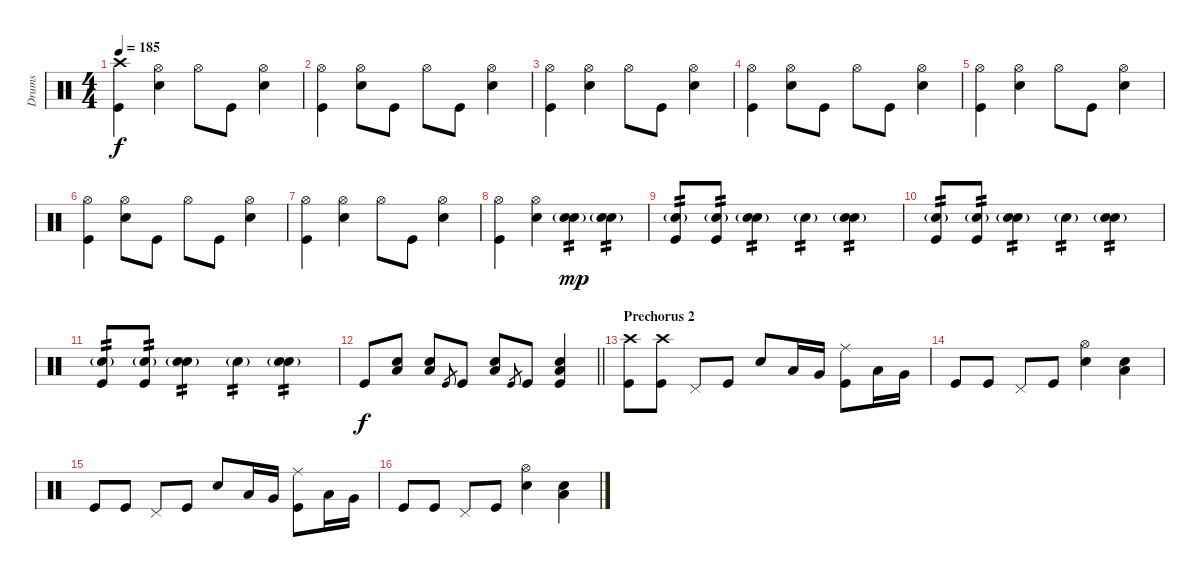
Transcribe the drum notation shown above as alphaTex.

\track ("Drums" "Drums") {instrument percussion}
\staff {score}
\articulation defaults
\ts (4 4)
\tempo 185
\clef neutral
\ks c
("Crash high (hit)" "Kick (hit)").4{dy f} ("Hi-Hat (open)" "Snare (hit) 2").4 "Hi-Hat (open)".8 "Kick (hit)".8 ("Hi-Hat (open)" "Snare (hit) 2").4 |
("Hi-Hat (open)" "Kick (hit)").4 ("Hi-Hat (open)" "Snare (hit) 2").8 "Kick (hit)".8 "Hi-Hat (open)".8 "Kick (hit)".8 ("Hi-Hat (open)" "Snare (hit) 2").4 |
("Hi-Hat (open)" "Kick (hit)").4 ("Hi-Hat (open)" "Snare (hit) 2").4 "Hi-Hat (open)".8 "Kick (hit)".8 ("Hi-Hat (open)" "Snare (hit) 2").4 |
("Hi-Hat (open)" "Kick (hit)").4 ("Hi-Hat (open)" "Snare (hit) 2").8 "Kick (hit)".8 "Hi-Hat (open)".8 "Kick (hit)".8 ("Hi-Hat (open)" "Snare (hit) 2").4 |
("Hi-Hat (open)" "Kick (hit)").4 ("Hi-Hat (open)" "Snare (hit) 2").4 "Hi-Hat (open)".8 "Kick (hit)".8 ("Hi-Hat (open)" "Snare (hit) 2").4 |
("Hi-Hat (open)" "Kick (hit)").4 ("Hi-Hat (open)" "Snare (hit) 2").8 "Kick (hit)".8 "Hi-Hat (open)".8 "Kick (hit)".8 ("Hi-Hat (open)" "Snare (hit) 2").4 |
("Hi-Hat (open)" "Kick (hit)").4 ("Hi-Hat (open)" "Snare (hit) 2").4 "Hi-Hat (open)".8 "Kick (hit)".8 ("Hi-Hat (open)" "Snare (hit) 2").4 |
("Hi-Hat (open)" "Kick (hit)").4 ("Hi-Hat (open)" "Snare (hit) 2").4 ("Snare (hit) 2" "Snare (hit) 2"{g}).4{tp 2 dy mp} ("Snare (hit) 2" "Snare (hit) 2"{g}).4{tp 2} |
("Snare (hit) 2"{g} "Kick (hit)").8{tp 2} ("Snare (hit) 2"{g} "Kick (hit)").8{tp 2} ("Snare (hit) 2"{g} "Snare (hit) 2").4{tp 2} "Snare (hit) 2"{g}.4{tp 2} ("Snare (hit) 2"{g} "Snare (hit) 2").4{tp 2} |
("Snare (hit) 2"{g} "Kick (hit)").8{tp 2} ("Snare (hit) 2"{g} "Kick (hit)").8{tp 2} ("Snare (hit) 2"{g} "Snare (hit) 2").4{tp 2} "Snare (hit) 2"{g}.4{tp 2} ("Snare (hit) 2"{g} "Snare (hit) 2").4{tp 2} |
("Snare (hit) 2"{g} "Kick (hit)").8{tp 2} ("Snare (hit) 2"{g} "Kick (hit)").8{tp 2} ("Snare (hit) 2"{g} "Snare (hit) 2").4{tp 2} "Snare (hit) 2"{g}.4{tp 2} ("Snare (hit) 2"{g} "Snare (hit) 2").4{tp 2} |
\barLineRight lightlight "Kick (hit)".8{dy f}
("Snare (hit) 2" "Low Floor Tom (hit)").8 ("Snare (hit) 2" "Low Floor Tom (hit)").8 "Kick (hit)".8{gr} "Kick (hit)".8 ("Snare (hit) 2" "Low Floor Tom (hit)").8 "Kick (hit)".8{gr} "Kick (hit)".8 ("Snare (hit) 2" "Kick (hit)" "Low Floor Tom (hit)").4 |
\section ("" "Prechorus 2")
("Crash high (hit)" "Kick (hit)").8 ("Crash high (hit)" "Kick (hit)").8 "Pedal Hi-Hat (hit)".8 "Kick (hit)".8 "Snare (hit) 2".8 "Low Tom (hit)".16 "Very Low Tom (hit)".16 ("Ride (middle)" "Kick (hit)").8 "Low Tom (hit)".16 "Very Low Tom (hit)".16 |
"Kick (hit)".8 "Kick (hit)".8 "Pedal Hi-Hat (hit)".8 "Kick (hit)".8 ("Hi-Hat (open)" "Snare (hit) 2").4 ("Snare (hit) 2" "Low Floor Tom (hit)").4 |
"Kick (hit)".8 "Kick (hit)".8 "Pedal Hi-Hat (hit)".8 "Kick (hit)".8 "Snare (hit) 2".8 "Low Tom (hit)".16 "Very Low Tom (hit)".16 ("Ride (middle)" "Kick (hit)").8 "Low Tom (hit)".16 "Very Low Tom (hit)".16 |
"Kick (hit)".8 "Kick (hit)".8 "Pedal Hi-Hat (hit)".8 "Kick (hit)".8 ("Hi-Hat (open)" "Snare (hit) 2").4 ("Snare (hit) 2" "Low Floor Tom (hit)").4
